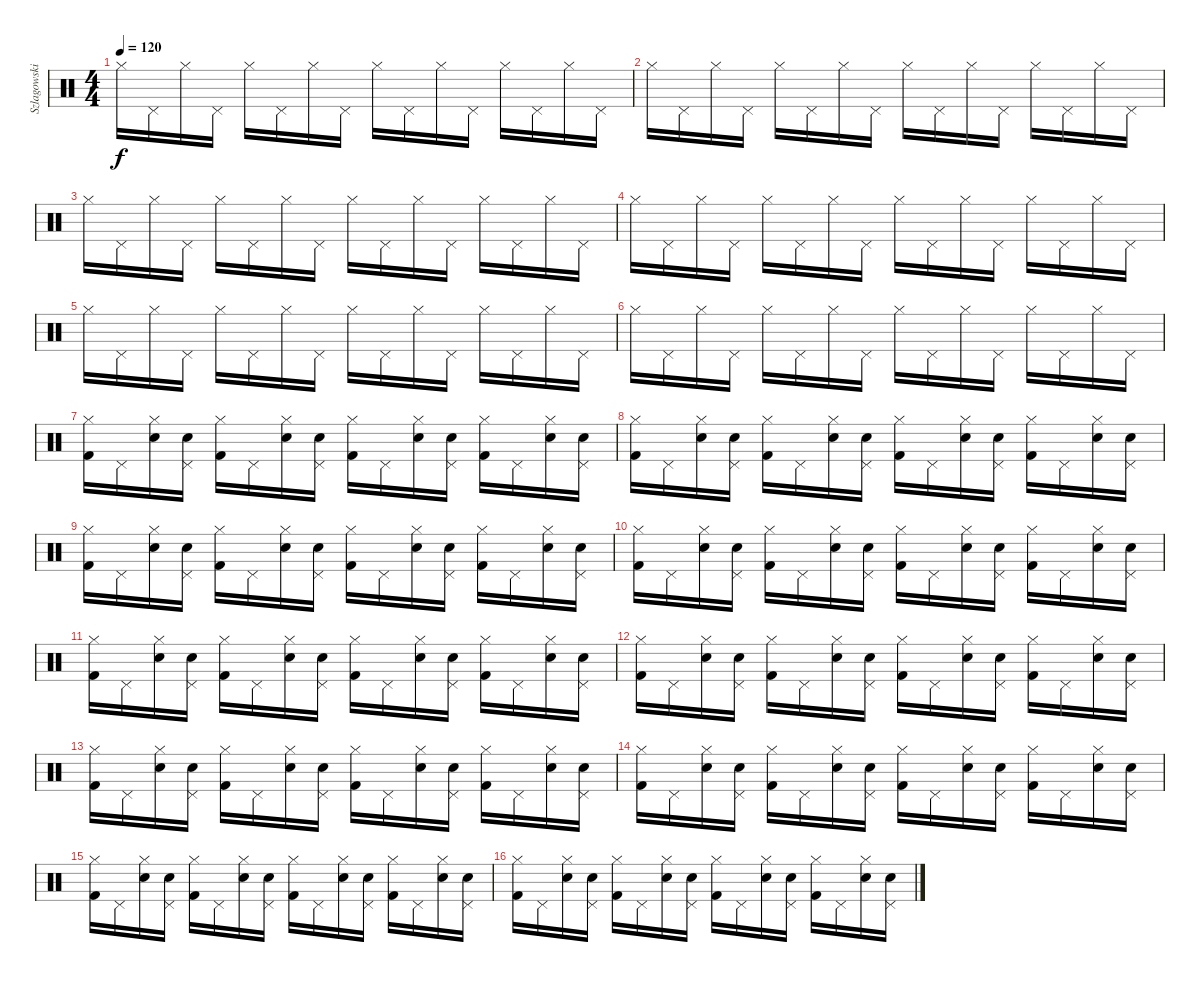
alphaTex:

\track ("Szlagowski" "Szlagowski") {instrument percussion}
\staff {score}
\articulation defaults
\ts (4 4)
\tempo 120
\clef neutral
\ks c "Hi-Hat (closed)".16{dy f} "Pedal Hi-Hat (hit)".16 "Hi-Hat (closed)".16 "Pedal Hi-Hat (hit)".16 "Hi-Hat (closed)".16 "Pedal Hi-Hat (hit)".16 "Hi-Hat (closed)".16 "Pedal Hi-Hat (hit)".16 "Hi-Hat (closed)".16 "Pedal Hi-Hat (hit)".16 "Hi-Hat (closed)".16 "Pedal Hi-Hat (hit)".16 "Hi-Hat (closed)".16 "Pedal Hi-Hat (hit)".16 "Hi-Hat (closed)".16 "Pedal Hi-Hat (hit)".16
|
"Hi-Hat (closed)".16 "Pedal Hi-Hat (hit)".16 "Hi-Hat (closed)".16 "Pedal Hi-Hat (hit)".16 "Hi-Hat (closed)".16 "Pedal Hi-Hat (hit)".16 "Hi-Hat (closed)".16 "Pedal Hi-Hat (hit)".16 "Hi-Hat (closed)".16 "Pedal Hi-Hat (hit)".16 "Hi-Hat (closed)".16 "Pedal Hi-Hat (hit)".16 "Hi-Hat (closed)".16 "Pedal Hi-Hat (hit)".16 "Hi-Hat (closed)".16 "Pedal Hi-Hat (hit)".16 |
"Hi-Hat (closed)".16 "Pedal Hi-Hat (hit)".16 "Hi-Hat (closed)".16 "Pedal Hi-Hat (hit)".16 "Hi-Hat (closed)".16 "Pedal Hi-Hat (hit)".16 "Hi-Hat (closed)".16 "Pedal Hi-Hat (hit)".16 "Hi-Hat (closed)".16 "Pedal Hi-Hat (hit)".16 "Hi-Hat (closed)".16 "Pedal Hi-Hat (hit)".16 "Hi-Hat (closed)".16 "Pedal Hi-Hat (hit)".16 "Hi-Hat (closed)".16 "Pedal Hi-Hat (hit)".16 |
"Hi-Hat (closed)".16 "Pedal Hi-Hat (hit)".16 "Hi-Hat (closed)".16 "Pedal Hi-Hat (hit)".16 "Hi-Hat (closed)".16 "Pedal Hi-Hat (hit)".16 "Hi-Hat (closed)".16 "Pedal Hi-Hat (hit)".16 "Hi-Hat (closed)".16 "Pedal Hi-Hat (hit)".16 "Hi-Hat (closed)".16 "Pedal Hi-Hat (hit)".16 "Hi-Hat (closed)".16 "Pedal Hi-Hat (hit)".16 "Hi-Hat (closed)".16 "Pedal Hi-Hat (hit)".16 |
"Hi-Hat (closed)".16 "Pedal Hi-Hat (hit)".16 "Hi-Hat (closed)".16 "Pedal Hi-Hat (hit)".16 "Hi-Hat (closed)".16 "Pedal Hi-Hat (hit)".16 "Hi-Hat (closed)".16 "Pedal Hi-Hat (hit)".16 "Hi-Hat (closed)".16 "Pedal Hi-Hat (hit)".16 "Hi-Hat (closed)".16 "Pedal Hi-Hat (hit)".16 "Hi-Hat (closed)".16 "Pedal Hi-Hat (hit)".16 "Hi-Hat (closed)".16 "Pedal Hi-Hat (hit)".16 |
"Hi-Hat (closed)".16 "Pedal Hi-Hat (hit)".16 "Hi-Hat (closed)".16 "Pedal Hi-Hat (hit)".16 "Hi-Hat (closed)".16 "Pedal Hi-Hat (hit)".16 "Hi-Hat (closed)".16 "Pedal Hi-Hat (hit)".16 "Hi-Hat (closed)".16 "Pedal Hi-Hat (hit)".16 "Hi-Hat (closed)".16 "Pedal Hi-Hat (hit)".16 "Hi-Hat (closed)".16 "Pedal Hi-Hat (hit)".16 "Hi-Hat (closed)".16 "Pedal Hi-Hat (hit)".16 |
("Hi-Hat (closed)" "Kick (hit) 2").16 "Pedal Hi-Hat (hit)".16 ("Hi-Hat (closed)" "Electric Snare (hit)").16 ("Pedal Hi-Hat (hit)" "Electric Snare (hit)").16 ("Hi-Hat (closed)" "Kick (hit) 2").16 "Pedal Hi-Hat (hit)".16 ("Hi-Hat (closed)" "Electric Snare (hit)").16 ("Pedal Hi-Hat (hit)" "Electric Snare (hit)").16 ("Hi-Hat (closed)" "Kick (hit) 2").16 "Pedal Hi-Hat (hit)".16 ("Hi-Hat (closed)" "Electric Snare (hit)").16 ("Pedal Hi-Hat (hit)" "Electric Snare (hit)").16 ("Hi-Hat (closed)" "Kick (hit) 2").16 "Pedal Hi-Hat (hit)".16 ("Hi-Hat (closed)" "Electric Snare (hit)").16 ("Pedal Hi-Hat (hit)" "Electric Snare (hit)").16 |
("Hi-Hat (closed)" "Kick (hit) 2").16 "Pedal Hi-Hat (hit)".16 ("Hi-Hat (closed)" "Electric Snare (hit)").16 ("Pedal Hi-Hat (hit)" "Electric Snare (hit)").16 ("Hi-Hat (closed)" "Kick (hit) 2").16 "Pedal Hi-Hat (hit)".16 ("Hi-Hat (closed)" "Electric Snare (hit)").16 ("Pedal Hi-Hat (hit)" "Electric Snare (hit)").16 ("Hi-Hat (closed)" "Kick (hit) 2").16 "Pedal Hi-Hat (hit)".16 ("Hi-Hat (closed)" "Electric Snare (hit)").16 ("Pedal Hi-Hat (hit)" "Electric Snare (hit)").16 ("Hi-Hat (closed)" "Kick (hit) 2").16 "Pedal Hi-Hat (hit)".16 ("Hi-Hat (closed)" "Electric Snare (hit)").16 ("Pedal Hi-Hat (hit)" "Electric Snare (hit)").16 |
("Hi-Hat (closed)" "Kick (hit) 2").16 "Pedal Hi-Hat (hit)".16 ("Hi-Hat (closed)" "Electric Snare (hit)").16 ("Pedal Hi-Hat (hit)" "Electric Snare (hit)").16 ("Hi-Hat (closed)" "Kick (hit) 2").16 "Pedal Hi-Hat (hit)".16 ("Hi-Hat (closed)" "Electric Snare (hit)").16 ("Pedal Hi-Hat (hit)" "Electric Snare (hit)").16 ("Hi-Hat (closed)" "Kick (hit) 2").16 "Pedal Hi-Hat (hit)".16 ("Hi-Hat (closed)" "Electric Snare (hit)").16 ("Pedal Hi-Hat (hit)" "Electric Snare (hit)").16 ("Hi-Hat (closed)" "Kick (hit) 2").16 "Pedal Hi-Hat (hit)".16 ("Hi-Hat (closed)" "Electric Snare (hit)").16 ("Pedal Hi-Hat (hit)" "Electric Snare (hit)").16 |
("Hi-Hat (closed)" "Kick (hit) 2").16 "Pedal Hi-Hat (hit)".16 ("Hi-Hat (closed)" "Electric Snare (hit)").16 ("Pedal Hi-Hat (hit)" "Electric Snare (hit)").16 ("Hi-Hat (closed)" "Kick (hit) 2").16 "Pedal Hi-Hat (hit)".16 ("Hi-Hat (closed)" "Electric Snare (hit)").16 ("Pedal Hi-Hat (hit)" "Electric Snare (hit)").16 ("Hi-Hat (closed)" "Kick (hit) 2").16 "Pedal Hi-Hat (hit)".16 ("Hi-Hat (closed)" "Electric Snare (hit)").16 ("Pedal Hi-Hat (hit)" "Electric Snare (hit)").16 ("Hi-Hat (closed)" "Kick (hit) 2").16 "Pedal Hi-Hat (hit)".16 ("Hi-Hat (closed)" "Electric Snare (hit)").16 ("Pedal Hi-Hat (hit)" "Electric Snare (hit)").16 |
("Hi-Hat (closed)" "Kick (hit) 2").16 "Pedal Hi-Hat (hit)".16 ("Hi-Hat (closed)" "Electric Snare (hit)").16 ("Pedal Hi-Hat (hit)" "Electric Snare (hit)").16 ("Hi-Hat (closed)" "Kick (hit) 2").16 "Pedal Hi-Hat (hit)".16 ("Hi-Hat (closed)" "Electric Snare (hit)").16 ("Pedal Hi-Hat (hit)" "Electric Snare (hit)").16 ("Hi-Hat (closed)" "Kick (hit) 2").16 "Pedal Hi-Hat (hit)".16 ("Hi-Hat (closed)" "Electric Snare (hit)").16 ("Pedal Hi-Hat (hit)" "Electric Snare (hit)").16 ("Hi-Hat (closed)" "Kick (hit) 2").16 "Pedal Hi-Hat (hit)".16 ("Hi-Hat (closed)" "Electric Snare (hit)").16 ("Pedal Hi-Hat (hit)" "Electric Snare (hit)").16 |
("Hi-Hat (closed)" "Kick (hit) 2").16 "Pedal Hi-Hat (hit)".16 ("Hi-Hat (closed)" "Electric Snare (hit)").16 ("Pedal Hi-Hat (hit)" "Electric Snare (hit)").16 ("Hi-Hat (closed)" "Kick (hit) 2").16 "Pedal Hi-Hat (hit)".16 ("Hi-Hat (closed)" "Electric Snare (hit)").16 ("Pedal Hi-Hat (hit)" "Electric Snare (hit)").16 ("Hi-Hat (closed)" "Kick (hit) 2").16 "Pedal Hi-Hat (hit)".16 ("Hi-Hat (closed)" "Electric Snare (hit)").16 ("Pedal Hi-Hat (hit)" "Electric Snare (hit)").16 ("Hi-Hat (closed)" "Kick (hit) 2").16 "Pedal Hi-Hat (hit)".16 ("Hi-Hat (closed)" "Electric Snare (hit)").16 ("Pedal Hi-Hat (hit)" "Electric Snare (hit)").16 |
("Hi-Hat (closed)" "Kick (hit) 2").16 "Pedal Hi-Hat (hit)".16 ("Hi-Hat (closed)" "Electric Snare (hit)").16 ("Pedal Hi-Hat (hit)" "Electric Snare (hit)").16 ("Hi-Hat (closed)" "Kick (hit) 2").16 "Pedal Hi-Hat (hit)".16 ("Hi-Hat (closed)" "Electric Snare (hit)").16 ("Pedal Hi-Hat (hit)" "Electric Snare (hit)").16 ("Hi-Hat (closed)" "Kick (hit) 2").16 "Pedal Hi-Hat (hit)".16 ("Hi-Hat (closed)" "Electric Snare (hit)").16 ("Pedal Hi-Hat (hit)" "Electric Snare (hit)").16 ("Hi-Hat (closed)" "Kick (hit) 2").16 "Pedal Hi-Hat (hit)".16 ("Hi-Hat (closed)" "Electric Snare (hit)").16 ("Pedal Hi-Hat (hit)" "Electric Snare (hit)").16 |
("Hi-Hat (closed)" "Kick (hit) 2").16 "Pedal Hi-Hat (hit)".16 ("Hi-Hat (closed)" "Electric Snare (hit)").16 ("Pedal Hi-Hat (hit)" "Electric Snare (hit)").16 ("Hi-Hat (closed)" "Kick (hit) 2").16 "Pedal Hi-Hat (hit)".16 ("Hi-Hat (closed)" "Electric Snare (hit)").16 ("Pedal Hi-Hat (hit)" "Electric Snare (hit)").16 ("Hi-Hat (closed)" "Kick (hit) 2").16 "Pedal Hi-Hat (hit)".16 ("Hi-Hat (closed)" "Electric Snare (hit)").16 ("Pedal Hi-Hat (hit)" "Electric Snare (hit)").16 ("Hi-Hat (closed)" "Kick (hit) 2").16 "Pedal Hi-Hat (hit)".16 ("Hi-Hat (closed)" "Electric Snare (hit)").16 ("Pedal Hi-Hat (hit)" "Electric Snare (hit)").16 |
("Hi-Hat (closed)" "Kick (hit) 2").16 "Pedal Hi-Hat (hit)".16 ("Hi-Hat (closed)" "Electric Snare (hit)").16 ("Pedal Hi-Hat (hit)" "Electric Snare (hit)").16 ("Hi-Hat (closed)" "Kick (hit) 2").16 "Pedal Hi-Hat (hit)".16 ("Hi-Hat (closed)" "Electric Snare (hit)").16 ("Pedal Hi-Hat (hit)" "Electric Snare (hit)").16 ("Hi-Hat (closed)" "Kick (hit) 2").16 "Pedal Hi-Hat (hit)".16 ("Hi-Hat (closed)" "Electric Snare (hit)").16 ("Pedal Hi-Hat (hit)" "Electric Snare (hit)").16 ("Hi-Hat (closed)" "Kick (hit) 2").16 "Pedal Hi-Hat (hit)".16 ("Hi-Hat (closed)" "Electric Snare (hit)").16 ("Pedal Hi-Hat (hit)" "Electric Snare (hit)").16 |
("Hi-Hat (closed)" "Kick (hit) 2").16 "Pedal Hi-Hat (hit)".16 ("Hi-Hat (closed)" "Electric Snare (hit)").16 ("Pedal Hi-Hat (hit)" "Electric Snare (hit)").16 ("Hi-Hat (closed)" "Kick (hit) 2").16 "Pedal Hi-Hat (hit)".16 ("Hi-Hat (closed)" "Electric Snare (hit)").16 ("Pedal Hi-Hat (hit)" "Electric Snare (hit)").16 ("Hi-Hat (closed)" "Kick (hit) 2").16 "Pedal Hi-Hat (hit)".16 ("Hi-Hat (closed)" "Electric Snare (hit)").16 ("Pedal Hi-Hat (hit)" "Electric Snare (hit)").16 ("Hi-Hat (closed)" "Kick (hit) 2").16 "Pedal Hi-Hat (hit)".16 ("Hi-Hat (closed)" "Electric Snare (hit)").16 ("Pedal Hi-Hat (hit)" "Electric Snare (hit)").16
